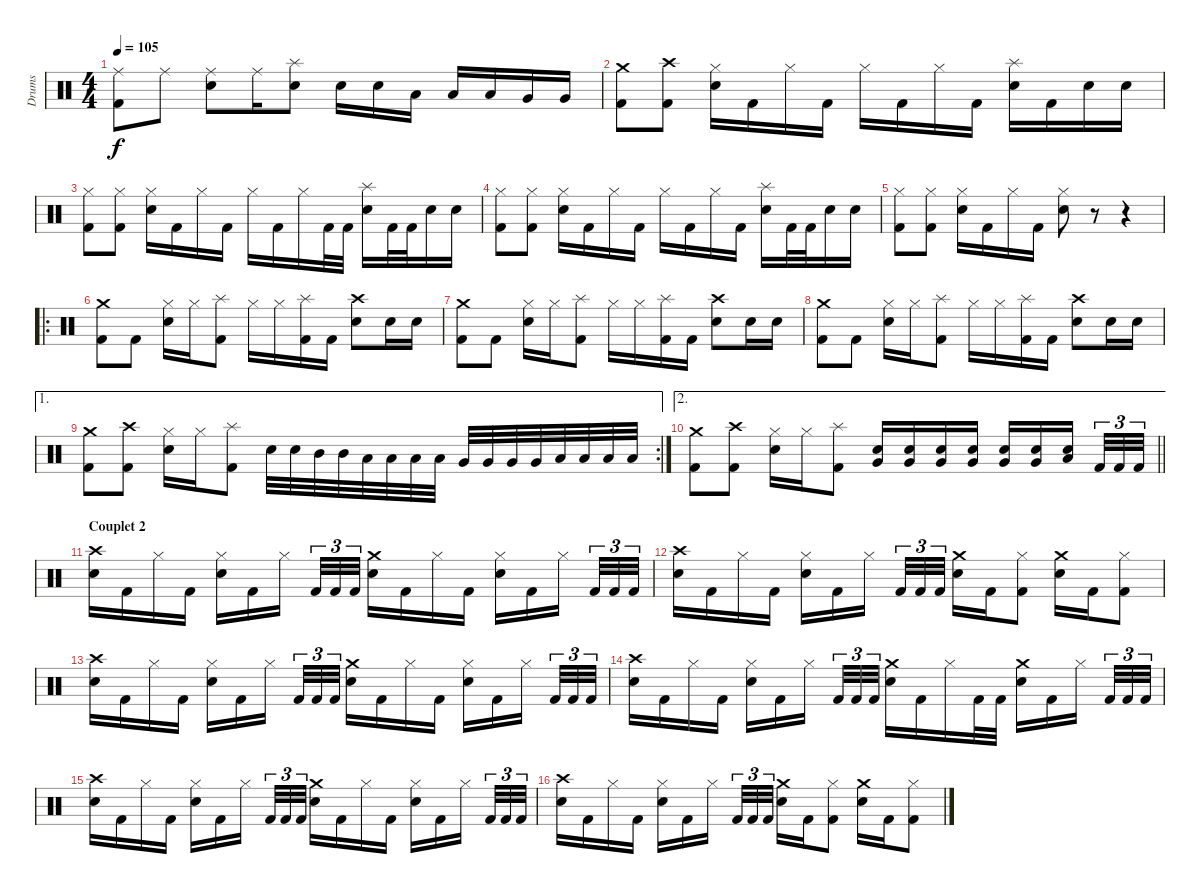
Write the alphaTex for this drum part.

\track ("Drums" "Drums") {instrument percussion}
\staff {score}
\articulation defaults
\ts (4 4)
\tempo 105
\clef neutral
\ks c
("Ride (middle)" "Kick (hit) 2").8{dy f} "Ride (middle)".8 ("Ride (middle)" "Electric Snare (hit)").8 "Ride (middle)".16 ("Splash (hit)" "Electric Snare (hit)").8 "Electric Snare (hit)".16 "Electric Snare (hit)".16 "Low Tom (hit)".16 "Low Tom (hit)".16 "Low Tom (hit)".16 "Very Low Tom (hit)".16 "Very Low Tom (hit)".16 |
("Crash medium (hit)" "Kick (hit) 2").8 ("Crash high (hit)" "Kick (hit) 2").8 ("Hi-Hat (closed)" "Electric Snare (hit)").16 "Kick (hit) 2".16 "Hi-Hat (closed)".16 "Kick (hit) 2".16 "Hi-Hat (closed)".16 "Kick (hit) 2".16 "Hi-Hat (closed)".16 "Kick (hit) 2".16 ("Splash (hit)" "Electric Snare (hit)").16 "Kick (hit) 2".16 "Electric Snare (hit)".16 "Electric Snare (hit)".16 |
("Hi-Hat (closed)" "Kick (hit) 2").8 ("Hi-Hat (closed)" "Kick (hit) 2").8 ("Hi-Hat (closed)" "Electric Snare (hit)").16 "Kick (hit) 2".16 "Hi-Hat (closed)".16 "Kick (hit) 2".16 "Hi-Hat (closed)".16 "Kick (hit) 2".16 "Hi-Hat (closed)".16 "Kick (hit) 2".32 "Kick (hit) 2".32 ("Splash (hit)" "Electric Snare (hit)").16 "Kick (hit) 2".32 "Kick (hit) 2".32 "Electric Snare (hit)".16 "Electric Snare (hit)".16 |
("Hi-Hat (closed)" "Kick (hit) 2").8 ("Hi-Hat (closed)" "Kick (hit) 2").8 ("Hi-Hat (closed)" "Electric Snare (hit)").16 "Kick (hit) 2".16 "Hi-Hat (closed)".16 "Kick (hit) 2".16 "Hi-Hat (closed)".16 "Kick (hit) 2".16 "Hi-Hat (closed)".16 "Kick (hit) 2".16 ("Splash (hit)" "Electric Snare (hit)").16 "Kick (hit) 2".32 "Kick (hit) 2".32 "Electric Snare (hit)".16 "Electric Snare (hit)".16 |
("Hi-Hat (closed)" "Kick (hit) 2").8 ("Hi-Hat (closed)" "Kick (hit) 2").8 ("Hi-Hat (closed)" "Electric Snare (hit)").16 "Kick (hit) 2".16 "Hi-Hat (closed)".16 "Kick (hit) 2".16 ("Hi-Hat (closed)" "Electric Snare (hit)").8 r.8 r.4 |
\ro
("Crash medium (hit)" "Kick (hit) 2").8 "Kick (hit) 2".8 ("Hi-Hat (closed)" "Electric Snare (hit)").16 "Hi-Hat (closed)".16 ("Splash (hit)" "Kick (hit) 2").8 "Hi-Hat (closed)".16 "Hi-Hat (closed)".16 ("Splash (hit)" "Kick (hit) 2").16 "Kick (hit) 2".16 ("Crash high (hit)" "Electric Snare (hit)").8 "Electric Snare (hit)".16 "Electric Snare (hit)".16 |
("Crash medium (hit)" "Kick (hit) 2").8 "Kick (hit) 2".8 ("Hi-Hat (closed)" "Electric Snare (hit)").16 "Hi-Hat (closed)".16 ("Splash (hit)" "Kick (hit) 2").8 "Hi-Hat (closed)".16 "Hi-Hat (closed)".16 ("Splash (hit)" "Kick (hit) 2").16 "Kick (hit) 2".16 ("Crash high (hit)" "Electric Snare (hit)").8 "Electric Snare (hit)".16 "Electric Snare (hit)".16 |
("Crash medium (hit)" "Kick (hit) 2").8 "Kick (hit) 2".8 ("Hi-Hat (closed)" "Electric Snare (hit)").16 "Hi-Hat (closed)".16 ("Splash (hit)" "Kick (hit) 2").8 "Hi-Hat (closed)".16 "Hi-Hat (closed)".16 ("Splash (hit)" "Kick (hit) 2").16 "Kick (hit) 2".16 ("Crash high (hit)" "Electric Snare (hit)").8 "Electric Snare (hit)".16 "Electric Snare (hit)".16 |
\ae 1
\rc 2
("Crash medium (hit)" "Kick (hit) 2").8 ("Crash high (hit)" "Kick (hit) 2").8 ("Hi-Hat (closed)" "Electric Snare (hit)").16 "Hi-Hat (closed)".16 ("Splash (hit)" "Kick (hit) 2").8 "Electric Snare (hit)".32 "Electric Snare (hit)".32 "Mid Tom (hit)".32 "Mid Tom (hit)".32 "Low Tom (hit)".32 "Low Tom (hit)".32 "Low Tom (hit)".32 "Low Tom (hit)".32 "Very Low Tom (hit)".32 "Very Low Tom (hit)".32 "Very Low Tom (hit)".32 "Very Low Tom (hit)".32 "Low Floor Tom (hit)".32 "Low Floor Tom (hit)".32 "Low Floor Tom (hit)".32 "Low Floor Tom (hit)".32 |
\ae 2
\barLineRight lightlight
("Crash medium (hit)" "Kick (hit) 2").8 ("Crash high (hit)" "Kick (hit) 2").8 ("Hi-Hat (closed)" "Electric Snare (hit)").16 "Hi-Hat (closed)".16 ("Splash (hit)" "Kick (hit) 2").8 ("Very Low Tom (hit)" "Electric Snare (hit)").16 ("Very Low Tom (hit)" "Electric Snare (hit)").16 ("Very Low Tom (hit)" "Electric Snare (hit)").16 ("Very Low Tom (hit)" "Electric Snare (hit)").16 ("Very Low Tom (hit)" "Electric Snare (hit)").16 ("Very Low Tom (hit)" "Electric Snare (hit)").16 ("Low Floor Tom (hit)" "Electric Snare (hit)").16{beam splitsecondary} "Kick (hit) 2".32{tu (3 2)} "Kick (hit) 2".32{tu (3 2)} "Kick (hit) 2".32{tu (3 2)} |
\section ("" "Couplet 2")
("Crash high (hit)" "Electric Snare (hit)").16 "Kick (hit) 2".16 "Hi-Hat (closed)".16 "Kick (hit) 2".16 ("Hi-Hat (closed)" "Electric Snare (hit)").16 "Kick (hit) 2".16 "Hi-Hat (closed)".16{beam splitsecondary} "Kick (hit) 2".32{tu (3 2)} "Kick (hit) 2".32{tu (3 2)} "Kick (hit) 2".32{tu (3 2)} ("Crash medium (hit)" "Electric Snare (hit)").16 "Kick (hit) 2".16 "Hi-Hat (closed)".16 "Kick (hit) 2".16 ("Hi-Hat (closed)" "Electric Snare (hit)").16 "Kick (hit) 2".16 "Hi-Hat (closed)".16{beam splitsecondary} "Kick (hit) 2".32{tu (3 2)} "Kick (hit) 2".32{tu (3 2)} "Kick (hit) 2".32{tu (3 2)} |
("Crash high (hit)" "Electric Snare (hit)").16 "Kick (hit) 2".16 "Hi-Hat (closed)".16 "Kick (hit) 2".16 ("Hi-Hat (closed)" "Electric Snare (hit)").16 "Kick (hit) 2".16 "Hi-Hat (closed)".16{beam splitsecondary} "Kick (hit) 2".32{tu (3 2)} "Kick (hit) 2".32{tu (3 2)} "Kick (hit) 2".32{tu (3 2)} ("Crash medium (hit)" "Electric Snare (hit)").16 "Kick (hit) 2".16 ("Hi-Hat (closed)" "Kick (hit) 2").8 ("Crash medium (hit)" "Electric Snare (hit)").16 "Kick (hit) 2".16 ("Hi-Hat (closed)" "Kick (hit) 2").8 |
("Crash high (hit)" "Electric Snare (hit)").16 "Kick (hit) 2".16 "Hi-Hat (closed)".16 "Kick (hit) 2".16 ("Hi-Hat (closed)" "Electric Snare (hit)").16 "Kick (hit) 2".16 "Hi-Hat (closed)".16{beam splitsecondary} "Kick (hit) 2".32{tu (3 2)} "Kick (hit) 2".32{tu (3 2)} "Kick (hit) 2".32{tu (3 2)} ("Crash medium (hit)" "Electric Snare (hit)").16 "Kick (hit) 2".16 "Hi-Hat (closed)".16 "Kick (hit) 2".16 ("Hi-Hat (closed)" "Electric Snare (hit)").16 "Kick (hit) 2".16 "Hi-Hat (closed)".16{beam splitsecondary} "Kick (hit) 2".32{tu (3 2)} "Kick (hit) 2".32{tu (3 2)} "Kick (hit) 2".32{tu (3 2)} |
("Crash high (hit)" "Electric Snare (hit)").16 "Kick (hit) 2".16 "Hi-Hat (closed)".16 "Kick (hit) 2".16 ("Hi-Hat (closed)" "Electric Snare (hit)").16 "Kick (hit) 2".16 "Hi-Hat (closed)".16{beam splitsecondary} "Kick (hit) 2".32{tu (3 2)} "Kick (hit) 2".32{tu (3 2)} "Kick (hit) 2".32{tu (3 2)} ("Crash medium (hit)" "Electric Snare (hit)").16 "Kick (hit) 2".16 "Hi-Hat (closed)".16 "Kick (hit) 2".32 "Kick (hit) 2".32 ("Crash medium (hit)" "Electric Snare (hit)").16 "Kick (hit) 2".16 "Hi-Hat (closed)".16{beam splitsecondary} "Kick (hit) 2".32{tu (3 2)} "Kick (hit) 2".32{tu (3 2)} "Kick (hit) 2".32{tu (3 2)} |
("Crash high (hit)" "Electric Snare (hit)").16 "Kick (hit) 2".16 "Hi-Hat (closed)".16 "Kick (hit) 2".16 ("Hi-Hat (closed)" "Electric Snare (hit)").16 "Kick (hit) 2".16 "Hi-Hat (closed)".16{beam splitsecondary} "Kick (hit) 2".32{tu (3 2)} "Kick (hit) 2".32{tu (3 2)} "Kick (hit) 2".32{tu (3 2)} ("Crash medium (hit)" "Electric Snare (hit)").16 "Kick (hit) 2".16 "Hi-Hat (closed)".16 "Kick (hit) 2".16 ("Hi-Hat (closed)" "Electric Snare (hit)").16 "Kick (hit) 2".16 "Hi-Hat (closed)".16{beam splitsecondary} "Kick (hit) 2".32{tu (3 2)} "Kick (hit) 2".32{tu (3 2)} "Kick (hit) 2".32{tu (3 2)} |
("Crash high (hit)" "Electric Snare (hit)").16 "Kick (hit) 2".16 "Hi-Hat (closed)".16 "Kick (hit) 2".16 ("Hi-Hat (closed)" "Electric Snare (hit)").16 "Kick (hit) 2".16 "Hi-Hat (closed)".16{beam splitsecondary} "Kick (hit) 2".32{tu (3 2)} "Kick (hit) 2".32{tu (3 2)} "Kick (hit) 2".32{tu (3 2)} ("Crash medium (hit)" "Electric Snare (hit)").16 "Kick (hit) 2".16 ("Hi-Hat (closed)" "Kick (hit) 2").8 ("Crash medium (hit)" "Electric Snare (hit)").16 "Kick (hit) 2".16 ("Hi-Hat (closed)" "Kick (hit) 2").8
